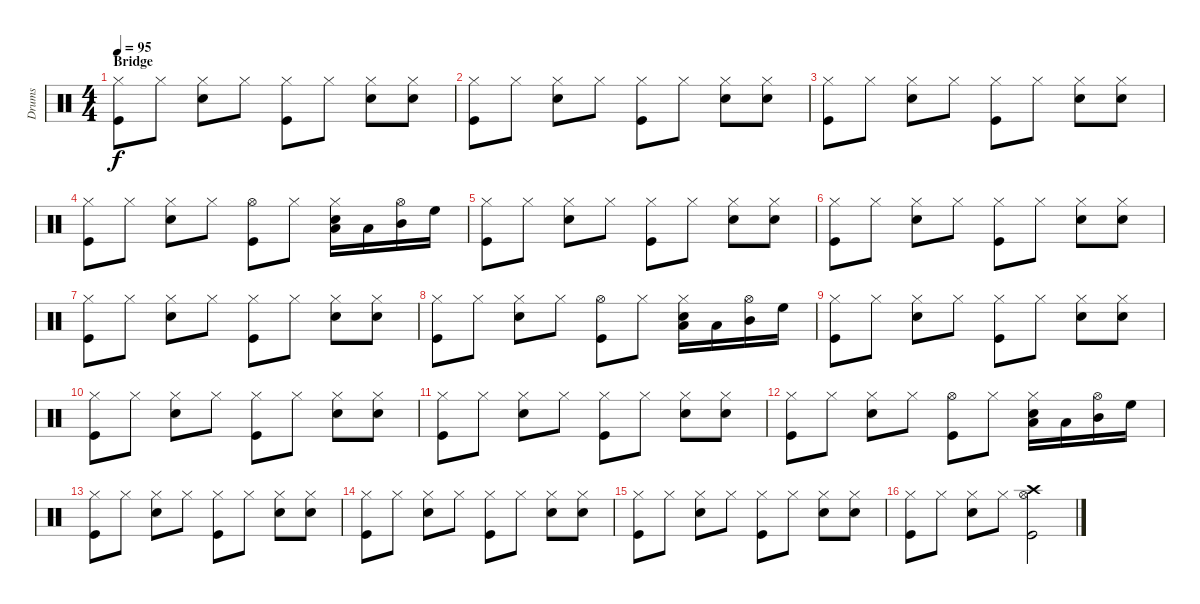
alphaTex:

\track ("Drums" "Drums") {instrument percussion}
\staff {score}
\articulation defaults
\ts (4 4)
\section ("" "Bridge")
\tempo 95
\clef neutral
\ks c
("Hi-Hat (closed)" "Kick (hit)").8{dy f} "Hi-Hat (closed)".8 ("Hi-Hat (closed)" "Snare (hit) 2").8 "Hi-Hat (closed)".8 ("Hi-Hat (closed)" "Kick (hit)").8 "Hi-Hat (closed)".8 ("Hi-Hat (closed)" "Snare (hit) 2").8 ("Hi-Hat (closed)" "Snare (hit) 2").8 |
("Hi-Hat (closed)" "Kick (hit)").8 "Hi-Hat (closed)".8 ("Hi-Hat (closed)" "Snare (hit) 2").8 "Hi-Hat (closed)".8 ("Hi-Hat (closed)" "Kick (hit)").8 "Hi-Hat (closed)".8 ("Hi-Hat (closed)" "Snare (hit) 2").8 ("Hi-Hat (closed)" "Snare (hit) 2").8 |
("Hi-Hat (closed)" "Kick (hit)").8 "Hi-Hat (closed)".8 ("Hi-Hat (closed)" "Snare (hit) 2").8 "Hi-Hat (closed)".8 ("Hi-Hat (closed)" "Kick (hit)").8 "Hi-Hat (closed)".8 ("Hi-Hat (closed)" "Snare (hit) 2").8 ("Hi-Hat (closed)" "Snare (hit) 2").8 |
("Hi-Hat (closed)" "Kick (hit)").8 "Hi-Hat (closed)".8 ("Hi-Hat (closed)" "Snare (hit) 2").8 "Hi-Hat (closed)".8 ("Hi-Hat (open)" "Kick (hit)").8 "Hi-Hat (closed)".8 ("Hi-Hat (closed)" "Snare (hit) 2" "Low Floor Tom (hit)").16 "Low Tom (hit)".16 ("Hi-Hat (open)" "Mid Tom (hit)").16 "High Floor Tom (hit)".16 |
("Hi-Hat (closed)" "Kick (hit)").8 "Hi-Hat (closed)".8 ("Hi-Hat (closed)" "Snare (hit) 2").8 "Hi-Hat (closed)".8 ("Hi-Hat (closed)" "Kick (hit)").8 "Hi-Hat (closed)".8 ("Hi-Hat (closed)" "Snare (hit) 2").8 ("Hi-Hat (closed)" "Snare (hit) 2").8 |
("Hi-Hat (closed)" "Kick (hit)").8 "Hi-Hat (closed)".8 ("Hi-Hat (closed)" "Snare (hit) 2").8 "Hi-Hat (closed)".8 ("Hi-Hat (closed)" "Kick (hit)").8 "Hi-Hat (closed)".8 ("Hi-Hat (closed)" "Snare (hit) 2").8 ("Hi-Hat (closed)" "Snare (hit) 2").8 |
("Hi-Hat (closed)" "Kick (hit)").8 "Hi-Hat (closed)".8 ("Hi-Hat (closed)" "Snare (hit) 2").8 "Hi-Hat (closed)".8 ("Hi-Hat (closed)" "Kick (hit)").8 "Hi-Hat (closed)".8 ("Hi-Hat (closed)" "Snare (hit) 2").8 ("Hi-Hat (closed)" "Snare (hit) 2").8 |
("Hi-Hat (closed)" "Kick (hit)").8 "Hi-Hat (closed)".8 ("Hi-Hat (closed)" "Snare (hit) 2").8 "Hi-Hat (closed)".8 ("Hi-Hat (open)" "Kick (hit)").8 "Hi-Hat (closed)".8 ("Hi-Hat (closed)" "Snare (hit) 2" "Low Floor Tom (hit)").16 "Low Tom (hit)".16 ("Hi-Hat (open)" "Mid Tom (hit)").16 "High Floor Tom (hit)".16 |
("Hi-Hat (closed)" "Kick (hit)").8 "Hi-Hat (closed)".8 ("Hi-Hat (closed)" "Snare (hit) 2").8 "Hi-Hat (closed)".8 ("Hi-Hat (closed)" "Kick (hit)").8 "Hi-Hat (closed)".8 ("Hi-Hat (closed)" "Snare (hit) 2").8 ("Hi-Hat (closed)" "Snare (hit) 2").8 |
("Hi-Hat (closed)" "Kick (hit)").8 "Hi-Hat (closed)".8 ("Hi-Hat (closed)" "Snare (hit) 2").8 "Hi-Hat (closed)".8 ("Hi-Hat (closed)" "Kick (hit)").8 "Hi-Hat (closed)".8 ("Hi-Hat (closed)" "Snare (hit) 2").8 ("Hi-Hat (closed)" "Snare (hit) 2").8 |
("Hi-Hat (closed)" "Kick (hit)").8 "Hi-Hat (closed)".8 ("Hi-Hat (closed)" "Snare (hit) 2").8 "Hi-Hat (closed)".8 ("Hi-Hat (closed)" "Kick (hit)").8 "Hi-Hat (closed)".8 ("Hi-Hat (closed)" "Snare (hit) 2").8 ("Hi-Hat (closed)" "Snare (hit) 2").8 |
("Hi-Hat (closed)" "Kick (hit)").8 "Hi-Hat (closed)".8 ("Hi-Hat (closed)" "Snare (hit) 2").8 "Hi-Hat (closed)".8 ("Hi-Hat (open)" "Kick (hit)").8 "Hi-Hat (closed)".8 ("Hi-Hat (closed)" "Snare (hit) 2" "Low Floor Tom (hit)").16 "Low Tom (hit)".16 ("Hi-Hat (open)" "Mid Tom (hit)").16 "High Floor Tom (hit)".16 |
("Hi-Hat (closed)" "Kick (hit)").8 "Hi-Hat (closed)".8 ("Hi-Hat (closed)" "Snare (hit) 2").8 "Hi-Hat (closed)".8 ("Hi-Hat (closed)" "Kick (hit)").8 "Hi-Hat (closed)".8 ("Hi-Hat (closed)" "Snare (hit) 2").8 ("Hi-Hat (closed)" "Snare (hit) 2").8 |
("Hi-Hat (closed)" "Kick (hit)").8 "Hi-Hat (closed)".8 ("Hi-Hat (closed)" "Snare (hit) 2").8 "Hi-Hat (closed)".8 ("Hi-Hat (closed)" "Kick (hit)").8 "Hi-Hat (closed)".8 ("Hi-Hat (closed)" "Snare (hit) 2").8 ("Hi-Hat (closed)" "Snare (hit) 2").8 |
("Hi-Hat (closed)" "Kick (hit)").8 "Hi-Hat (closed)".8 ("Hi-Hat (closed)" "Snare (hit) 2").8 "Hi-Hat (closed)".8 ("Hi-Hat (closed)" "Kick (hit)").8 "Hi-Hat (closed)".8 ("Hi-Hat (closed)" "Snare (hit) 2").8 ("Hi-Hat (closed)" "Snare (hit) 2").8 |
("Hi-Hat (closed)" "Kick (hit)").8 "Hi-Hat (closed)".8 ("Hi-Hat (closed)" "Snare (hit) 2").8 "Hi-Hat (closed)".8 ("Hi-Hat (open)" "Kick (hit)" "Crash high (hit)").2
